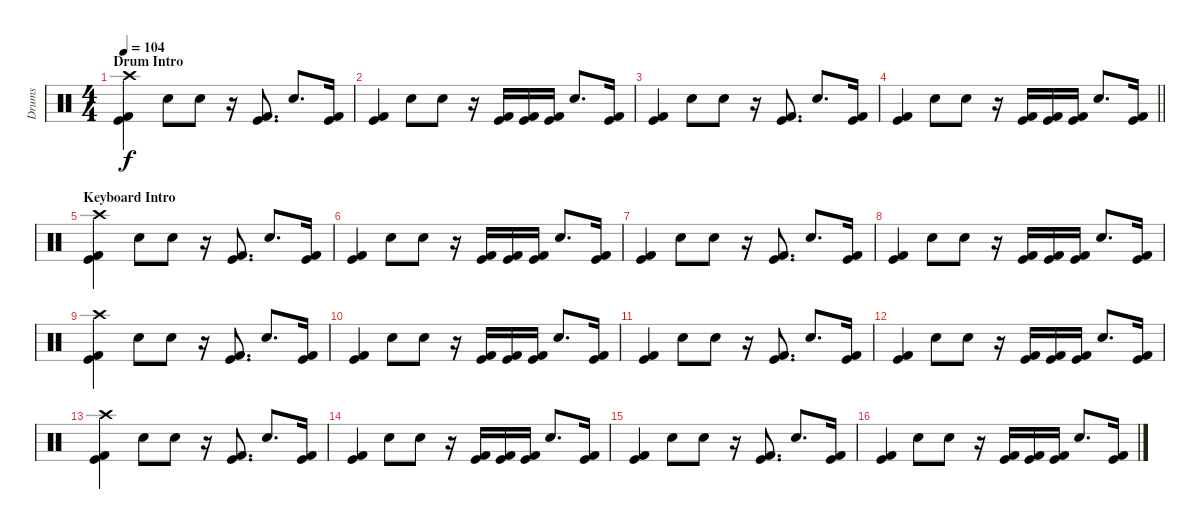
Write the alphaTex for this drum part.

\track ("Drums" "Drums") {instrument percussion}
\staff {score}
\articulation defaults
\ts (4 4)
\section ("" "Drum Intro")
\tempo 104
\clef neutral
\ks c
("Crash high (hit)" "Kick (hit) 2" "Kick (hit)").4{dy f} "Snare (hit) 2".8 "Snare (hit) 2".8 r.16 ("Kick (hit) 2" "Kick (hit)").8{d} "Snare (hit) 2".8{d} ("Kick (hit) 2" "Kick (hit)").16 |
("Kick (hit) 2" "Kick (hit)").4 "Snare (hit) 2".8 "Snare (hit) 2".8 r.16 ("Kick (hit) 2" "Kick (hit)").16 ("Kick (hit) 2" "Kick (hit)").16 ("Kick (hit) 2" "Kick (hit)").16 "Snare (hit) 2".8{d} ("Kick (hit) 2" "Kick (hit)").16 |
("Kick (hit) 2" "Kick (hit)").4 "Snare (hit) 2".8 "Snare (hit) 2".8 r.16 ("Kick (hit) 2" "Kick (hit)").8{d} "Snare (hit) 2".8{d} ("Kick (hit) 2" "Kick (hit)").16 |
\barLineRight lightlight
("Kick (hit) 2" "Kick (hit)").4 "Snare (hit) 2".8 "Snare (hit) 2".8 r.16 ("Kick (hit) 2" "Kick (hit)").16 ("Kick (hit) 2" "Kick (hit)").16 ("Kick (hit) 2" "Kick (hit)").16 "Snare (hit) 2".8{d} ("Kick (hit) 2" "Kick (hit)").16 |
\section ("" "Keyboard Intro")
("Crash high (hit)" "Kick (hit) 2" "Kick (hit)").4 "Snare (hit) 2".8 "Snare (hit) 2".8 r.16 ("Kick (hit) 2" "Kick (hit)").8{d} "Snare (hit) 2".8{d} ("Kick (hit) 2" "Kick (hit)").16 |
("Kick (hit) 2" "Kick (hit)").4 "Snare (hit) 2".8 "Snare (hit) 2".8 r.16 ("Kick (hit) 2" "Kick (hit)").16 ("Kick (hit) 2" "Kick (hit)").16 ("Kick (hit) 2" "Kick (hit)").16 "Snare (hit) 2".8{d} ("Kick (hit) 2" "Kick (hit)").16 |
("Kick (hit) 2" "Kick (hit)").4 "Snare (hit) 2".8 "Snare (hit) 2".8 r.16 ("Kick (hit) 2" "Kick (hit)").8{d} "Snare (hit) 2".8{d} ("Kick (hit) 2" "Kick (hit)").16 |
("Kick (hit) 2" "Kick (hit)").4 "Snare (hit) 2".8 "Snare (hit) 2".8 r.16 ("Kick (hit) 2" "Kick (hit)").16 ("Kick (hit) 2" "Kick (hit)").16 ("Kick (hit) 2" "Kick (hit)").16 "Snare (hit) 2".8{d} ("Kick (hit) 2" "Kick (hit)").16 |
("Crash high (hit)" "Kick (hit) 2" "Kick (hit)").4 "Snare (hit) 2".8 "Snare (hit) 2".8 r.16 ("Kick (hit) 2" "Kick (hit)").8{d} "Snare (hit) 2".8{d} ("Kick (hit) 2" "Kick (hit)").16 |
("Kick (hit) 2" "Kick (hit)").4 "Snare (hit) 2".8 "Snare (hit) 2".8 r.16 ("Kick (hit) 2" "Kick (hit)").16 ("Kick (hit) 2" "Kick (hit)").16 ("Kick (hit) 2" "Kick (hit)").16 "Snare (hit) 2".8{d} ("Kick (hit) 2" "Kick (hit)").16 |
("Kick (hit) 2" "Kick (hit)").4 "Snare (hit) 2".8 "Snare (hit) 2".8 r.16 ("Kick (hit) 2" "Kick (hit)").8{d} "Snare (hit) 2".8{d} ("Kick (hit) 2" "Kick (hit)").16 |
("Kick (hit) 2" "Kick (hit)").4 "Snare (hit) 2".8 "Snare (hit) 2".8 r.16 ("Kick (hit) 2" "Kick (hit)").16 ("Kick (hit) 2" "Kick (hit)").16 ("Kick (hit) 2" "Kick (hit)").16 "Snare (hit) 2".8{d} ("Kick (hit) 2" "Kick (hit)").16 |
("Crash high (hit)" "Kick (hit) 2" "Kick (hit)").4 "Snare (hit) 2".8 "Snare (hit) 2".8 r.16 ("Kick (hit) 2" "Kick (hit)").8{d} "Snare (hit) 2".8{d} ("Kick (hit) 2" "Kick (hit)").16 |
("Kick (hit) 2" "Kick (hit)").4 "Snare (hit) 2".8 "Snare (hit) 2".8 r.16 ("Kick (hit) 2" "Kick (hit)").16 ("Kick (hit) 2" "Kick (hit)").16 ("Kick (hit) 2" "Kick (hit)").16 "Snare (hit) 2".8{d} ("Kick (hit) 2" "Kick (hit)").16 |
("Kick (hit) 2" "Kick (hit)").4 "Snare (hit) 2".8 "Snare (hit) 2".8 r.16 ("Kick (hit) 2" "Kick (hit)").8{d} "Snare (hit) 2".8{d} ("Kick (hit) 2" "Kick (hit)").16 |
("Kick (hit) 2" "Kick (hit)").4 "Snare (hit) 2".8 "Snare (hit) 2".8 r.16 ("Kick (hit) 2" "Kick (hit)").16 ("Kick (hit) 2" "Kick (hit)").16 ("Kick (hit) 2" "Kick (hit)").16 "Snare (hit) 2".8{d} ("Kick (hit) 2" "Kick (hit)").16
